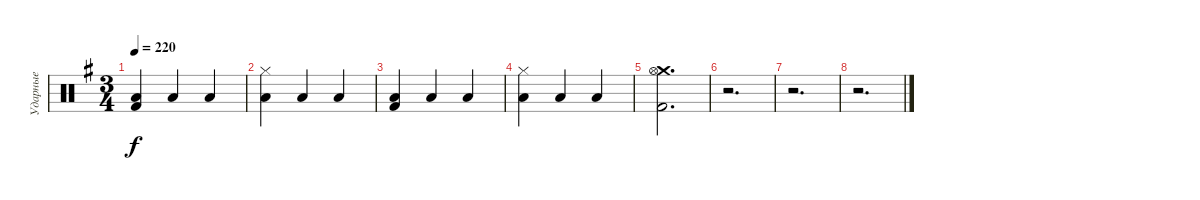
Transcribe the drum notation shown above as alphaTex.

\track ("Ударные" "Ударные") {instrument percussion}
\staff {score}
\articulation defaults
\ts (3 4)
\tempo 220
\clef neutral
\ks eminor
("Kick (hit) 2" "Low Tom (hit)").4{dy f} "Low Tom (hit)".4 "Low Tom (hit)".4 |
("Hi-Hat (closed)" "Low Tom (hit)").4 "Low Tom (hit)".4 "Low Tom (hit)".4 |
("Kick (hit) 2" "Low Tom (hit)").4 "Low Tom (hit)".4 "Low Tom (hit)".4 |
("Hi-Hat (closed)" "Low Tom (hit)").4 "Low Tom (hit)".4 "Low Tom (hit)".4 |
("Crash medium (hit)" "Hi-Hat (open)" "Kick (hit) 2").2{d} |
r.2{d} |
r.2{d} |
r.2{d}
